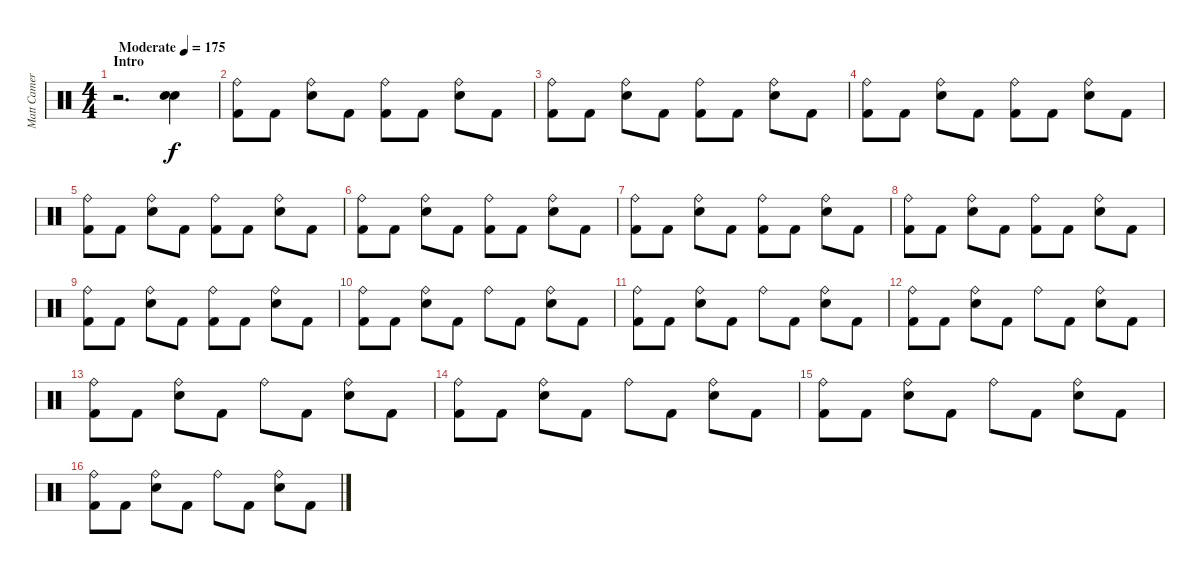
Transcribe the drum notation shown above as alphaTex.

\track ("Matt Cameron" "Matt Camer") {instrument percussion}
\staff {score}
\articulation defaults
\ts (4 4)
\section ("" "Intro")
\tempo (175 "Moderate")
\clef neutral
\ks c
r.2{d dy f} ("Electric Snare (hit)" "Electric Snare (hit)").4 |
("Ride (bell)" "Kick (hit) 2").8 "Kick (hit) 2".8 ("Ride (bell)" "Electric Snare (hit)").8 "Kick (hit) 2".8 ("Ride (bell)" "Kick (hit) 2").8 "Kick (hit) 2".8 ("Ride (bell)" "Electric Snare (hit)").8 "Kick (hit) 2".8 |
("Ride (bell)" "Kick (hit) 2").8 "Kick (hit) 2".8 ("Ride (bell)" "Electric Snare (hit)").8 "Kick (hit) 2".8 ("Ride (bell)" "Kick (hit) 2").8 "Kick (hit) 2".8 ("Ride (bell)" "Electric Snare (hit)").8 "Kick (hit) 2".8 |
("Ride (bell)" "Kick (hit) 2").8 "Kick (hit) 2".8 ("Ride (bell)" "Electric Snare (hit)").8 "Kick (hit) 2".8 ("Ride (bell)" "Kick (hit) 2").8 "Kick (hit) 2".8 ("Ride (bell)" "Electric Snare (hit)").8 "Kick (hit) 2".8 |
("Ride (bell)" "Kick (hit) 2").8 "Kick (hit) 2".8 ("Ride (bell)" "Electric Snare (hit)").8 "Kick (hit) 2".8 ("Ride (bell)" "Kick (hit) 2").8 "Kick (hit) 2".8 ("Ride (bell)" "Electric Snare (hit)").8 "Kick (hit) 2".8 |
("Ride (bell)" "Kick (hit) 2").8 "Kick (hit) 2".8 ("Ride (bell)" "Electric Snare (hit)").8 "Kick (hit) 2".8 ("Ride (bell)" "Kick (hit) 2").8 "Kick (hit) 2".8 ("Ride (bell)" "Electric Snare (hit)").8 "Kick (hit) 2".8 |
("Ride (bell)" "Kick (hit) 2").8 "Kick (hit) 2".8 ("Ride (bell)" "Electric Snare (hit)").8 "Kick (hit) 2".8 ("Ride (bell)" "Kick (hit) 2").8 "Kick (hit) 2".8 ("Ride (bell)" "Electric Snare (hit)").8 "Kick (hit) 2".8 |
("Ride (bell)" "Kick (hit) 2").8 "Kick (hit) 2".8 ("Ride (bell)" "Electric Snare (hit)").8 "Kick (hit) 2".8 ("Ride (bell)" "Kick (hit) 2").8 "Kick (hit) 2".8 ("Ride (bell)" "Electric Snare (hit)").8 "Kick (hit) 2".8 |
("Ride (bell)" "Kick (hit) 2").8 "Kick (hit) 2".8 ("Ride (bell)" "Electric Snare (hit)").8 "Kick (hit) 2".8 ("Ride (bell)" "Kick (hit) 2").8 "Kick (hit) 2".8 ("Ride (bell)" "Electric Snare (hit)").8 "Kick (hit) 2".8 |
("Ride (bell)" "Kick (hit) 2").8 "Kick (hit) 2".8 ("Ride (bell)" "Electric Snare (hit)").8 "Kick (hit) 2".8 "Ride (bell)".8 "Kick (hit) 2".8 ("Ride (bell)" "Electric Snare (hit)").8 "Kick (hit) 2".8 |
("Ride (bell)" "Kick (hit) 2").8 "Kick (hit) 2".8 ("Ride (bell)" "Electric Snare (hit)").8 "Kick (hit) 2".8 "Ride (bell)".8 "Kick (hit) 2".8 ("Ride (bell)" "Electric Snare (hit)").8 "Kick (hit) 2".8 |
("Ride (bell)" "Kick (hit) 2").8 "Kick (hit) 2".8 ("Ride (bell)" "Electric Snare (hit)").8 "Kick (hit) 2".8 "Ride (bell)".8 "Kick (hit) 2".8 ("Ride (bell)" "Electric Snare (hit)").8 "Kick (hit) 2".8 |
("Ride (bell)" "Kick (hit) 2").8 "Kick (hit) 2".8 ("Ride (bell)" "Electric Snare (hit)").8 "Kick (hit) 2".8 "Ride (bell)".8 "Kick (hit) 2".8 ("Ride (bell)" "Electric Snare (hit)").8 "Kick (hit) 2".8 |
("Ride (bell)" "Kick (hit) 2").8 "Kick (hit) 2".8 ("Ride (bell)" "Electric Snare (hit)").8 "Kick (hit) 2".8 "Ride (bell)".8 "Kick (hit) 2".8 ("Ride (bell)" "Electric Snare (hit)").8 "Kick (hit) 2".8 |
("Ride (bell)" "Kick (hit) 2").8 "Kick (hit) 2".8 ("Ride (bell)" "Electric Snare (hit)").8 "Kick (hit) 2".8 "Ride (bell)".8 "Kick (hit) 2".8 ("Ride (bell)" "Electric Snare (hit)").8 "Kick (hit) 2".8 |
("Ride (bell)" "Kick (hit) 2").8 "Kick (hit) 2".8 ("Ride (bell)" "Electric Snare (hit)").8 "Kick (hit) 2".8 "Ride (bell)".8 "Kick (hit) 2".8 ("Ride (bell)" "Electric Snare (hit)").8 "Kick (hit) 2".8
